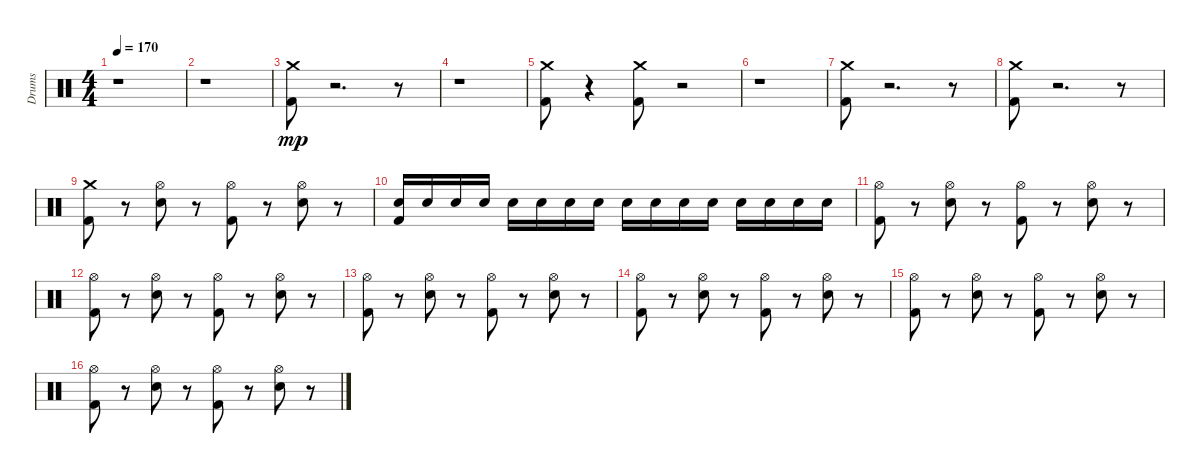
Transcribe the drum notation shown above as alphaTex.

\track ("Drums" "Drums") {instrument percussion}
\staff {score}
\articulation defaults
\ts (4 4)
\tempo 170
\clef neutral
\ks c
r.1{dy mp} |
r.1 |
("Crash medium (hit)" "Kick (hit) 2").8 r.2{d} r.8 |
r.1 |
("Crash medium (hit)" "Kick (hit) 2").8 r.4 ("Kick (hit) 2" "Crash medium (hit)").8 r.2 |
r.1 |
("Crash medium (hit)" "Kick (hit) 2").8 r.2{d} r.8 |
("Crash medium (hit)" "Kick (hit) 2").8 r.2{d} r.8 |
("Crash medium (hit)" "Kick (hit) 2").8 r.8 ("Electric Snare (hit)" "Hi-Hat (open)").8 r.8 ("Kick (hit) 2" "Hi-Hat (open)").8 r.8 ("Hi-Hat (open)" "Electric Snare (hit)").8 r.8 |
("Kick (hit) 2" "Electric Snare (hit)").16 "Electric Snare (hit)".16 "Electric Snare (hit)".16 "Electric Snare (hit)".16 "Electric Snare (hit)".16 "Electric Snare (hit)".16 "Electric Snare (hit)".16 "Electric Snare (hit)".16 "Electric Snare (hit)".16 "Electric Snare (hit)".16 "Electric Snare (hit)".16 "Electric Snare (hit)".16 "Electric Snare (hit)".16 "Electric Snare (hit)".16 "Electric Snare (hit)".16 "Electric Snare (hit)".16 |
("Hi-Hat (open)" "Kick (hit) 2").8 r.8 ("Electric Snare (hit)" "Hi-Hat (open)").8 r.8 ("Kick (hit) 2" "Hi-Hat (open)").8 r.8 ("Hi-Hat (open)" "Electric Snare (hit)").8 r.8 |
("Kick (hit) 2" "Hi-Hat (open)").8 r.8 ("Hi-Hat (open)" "Electric Snare (hit)").8 r.8 ("Kick (hit) 2" "Hi-Hat (open)").8 r.8 ("Hi-Hat (open)" "Electric Snare (hit)").8 r.8 |
("Hi-Hat (open)" "Kick (hit) 2").8 r.8 ("Hi-Hat (open)" "Electric Snare (hit)").8 r.8 ("Hi-Hat (open)" "Kick (hit) 2").8 r.8 ("Electric Snare (hit)" "Hi-Hat (open)").8 r.8 |
("Kick (hit) 2" "Hi-Hat (open)").8 r.8 ("Hi-Hat (open)" "Electric Snare (hit)").8 r.8 ("Kick (hit) 2" "Hi-Hat (open)").8 r.8 ("Electric Snare (hit)" "Hi-Hat (open)").8 r.8 |
("Kick (hit) 2" "Hi-Hat (open)").8 r.8 ("Hi-Hat (open)" "Electric Snare (hit)").8 r.8 ("Hi-Hat (open)" "Kick (hit) 2").8 r.8 ("Hi-Hat (open)" "Electric Snare (hit)").8 r.8 |
("Hi-Hat (open)" "Kick (hit) 2").8 r.8 ("Electric Snare (hit)" "Hi-Hat (open)").8 r.8 ("Hi-Hat (open)" "Kick (hit) 2").8 r.8 ("Hi-Hat (open)" "Electric Snare (hit)").8 r.8
